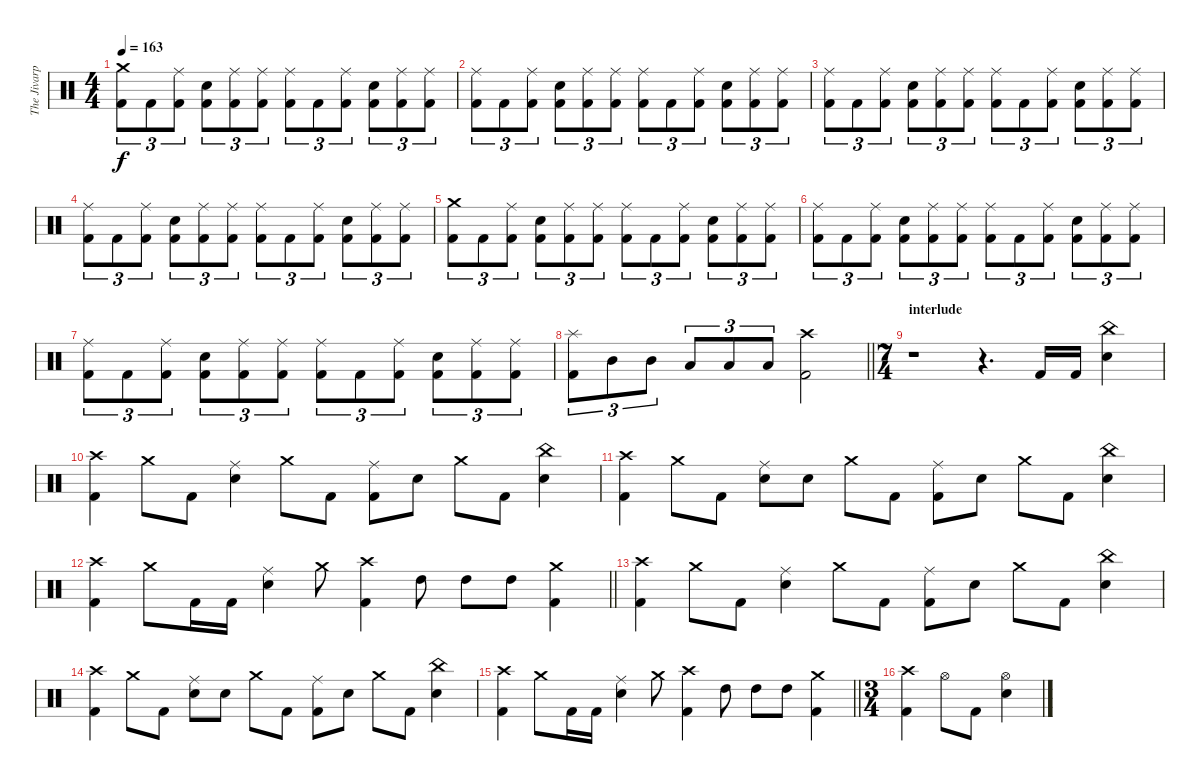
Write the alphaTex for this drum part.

\track ("The Jivarp" "The Jivarp") {instrument percussion}
\staff {score}
\articulation defaults
\ts (4 4)
\section ("" "")
\tempo 163
\clef neutral
\ks c
("Crash medium (hit)" "Kick (hit) 2").8{tu (3 2) dy f} "Kick (hit) 2".8{tu (3 2)} ("Ride (middle)" "Kick (hit) 2").8{tu (3 2)} ("Electric Snare (hit)" "Kick (hit) 2").8{tu (3 2)} ("Ride (middle)" "Kick (hit) 2").8{tu (3 2)} ("Ride (middle)" "Kick (hit) 2").8{tu (3 2)} ("Ride (middle)" "Kick (hit) 2").8{tu (3 2)} "Kick (hit) 2".8{tu (3 2)} ("Ride (middle)" "Kick (hit) 2").8{tu (3 2)} ("Electric Snare (hit)" "Kick (hit) 2").8{tu (3 2)} ("Ride (middle)" "Kick (hit) 2").8{tu (3 2)} ("Ride (middle)" "Kick (hit) 2").8{tu (3 2)} |
("Ride (middle)" "Kick (hit) 2").8{tu (3 2)} "Kick (hit) 2".8{tu (3 2)} ("Ride (middle)" "Kick (hit) 2").8{tu (3 2)} ("Electric Snare (hit)" "Kick (hit) 2").8{tu (3 2)} ("Ride (middle)" "Kick (hit) 2").8{tu (3 2)} ("Ride (middle)" "Kick (hit) 2").8{tu (3 2)} ("Ride (middle)" "Kick (hit) 2").8{tu (3 2)} "Kick (hit) 2".8{tu (3 2)} ("Ride (middle)" "Kick (hit) 2").8{tu (3 2)} ("Electric Snare (hit)" "Kick (hit) 2").8{tu (3 2)} ("Ride (middle)" "Kick (hit) 2").8{tu (3 2)} ("Ride (middle)" "Kick (hit) 2").8{tu (3 2)} |
("Ride (middle)" "Kick (hit) 2").8{tu (3 2)} "Kick (hit) 2".8{tu (3 2)} ("Ride (middle)" "Kick (hit) 2").8{tu (3 2)} ("Electric Snare (hit)" "Kick (hit) 2").8{tu (3 2)} ("Ride (middle)" "Kick (hit) 2").8{tu (3 2)} ("Ride (middle)" "Kick (hit) 2").8{tu (3 2)} ("Ride (middle)" "Kick (hit) 2").8{tu (3 2)} "Kick (hit) 2".8{tu (3 2)} ("Ride (middle)" "Kick (hit) 2").8{tu (3 2)} ("Electric Snare (hit)" "Kick (hit) 2").8{tu (3 2)} ("Ride (middle)" "Kick (hit) 2").8{tu (3 2)} ("Ride (middle)" "Kick (hit) 2").8{tu (3 2)} |
("Ride (middle)" "Kick (hit) 2").8{tu (3 2)} "Kick (hit) 2".8{tu (3 2)} ("Ride (middle)" "Kick (hit) 2").8{tu (3 2)} ("Electric Snare (hit)" "Kick (hit) 2").8{tu (3 2)} ("Ride (middle)" "Kick (hit) 2").8{tu (3 2)} ("Ride (middle)" "Kick (hit) 2").8{tu (3 2)} ("Ride (middle)" "Kick (hit) 2").8{tu (3 2)} "Kick (hit) 2".8{tu (3 2)} ("Ride (middle)" "Kick (hit) 2").8{tu (3 2)} ("Electric Snare (hit)" "Kick (hit) 2").8{tu (3 2)} ("Ride (middle)" "Kick (hit) 2").8{tu (3 2)} ("Ride (middle)" "Kick (hit) 2").8{tu (3 2)} |
("Crash medium (hit)" "Kick (hit) 2").8{tu (3 2)} "Kick (hit) 2".8{tu (3 2)} ("Ride (middle)" "Kick (hit) 2").8{tu (3 2)} ("Electric Snare (hit)" "Kick (hit) 2").8{tu (3 2)} ("Ride (middle)" "Kick (hit) 2").8{tu (3 2)} ("Ride (middle)" "Kick (hit) 2").8{tu (3 2)} ("Ride (middle)" "Kick (hit) 2").8{tu (3 2)} "Kick (hit) 2".8{tu (3 2)} ("Ride (middle)" "Kick (hit) 2").8{tu (3 2)} ("Electric Snare (hit)" "Kick (hit) 2").8{tu (3 2)} ("Ride (middle)" "Kick (hit) 2").8{tu (3 2)} ("Ride (middle)" "Kick (hit) 2").8{tu (3 2)} |
("Ride (middle)" "Kick (hit) 2").8{tu (3 2)} "Kick (hit) 2".8{tu (3 2)} ("Ride (middle)" "Kick (hit) 2").8{tu (3 2)} ("Electric Snare (hit)" "Kick (hit) 2").8{tu (3 2)} ("Ride (middle)" "Kick (hit) 2").8{tu (3 2)} ("Ride (middle)" "Kick (hit) 2").8{tu (3 2)} ("Ride (middle)" "Kick (hit) 2").8{tu (3 2)} "Kick (hit) 2".8{tu (3 2)} ("Ride (middle)" "Kick (hit) 2").8{tu (3 2)} ("Electric Snare (hit)" "Kick (hit) 2").8{tu (3 2)} ("Ride (middle)" "Kick (hit) 2").8{tu (3 2)} ("Ride (middle)" "Kick (hit) 2").8{tu (3 2)} |
("Ride (middle)" "Kick (hit) 2").8{tu (3 2)} "Kick (hit) 2".8{tu (3 2)} ("Ride (middle)" "Kick (hit) 2").8{tu (3 2)} ("Electric Snare (hit)" "Kick (hit) 2").8{tu (3 2)} ("Ride (middle)" "Kick (hit) 2").8{tu (3 2)} ("Ride (middle)" "Kick (hit) 2").8{tu (3 2)} ("Ride (middle)" "Kick (hit) 2").8{tu (3 2)} "Kick (hit) 2".8{tu (3 2)} ("Ride (middle)" "Kick (hit) 2").8{tu (3 2)} ("Electric Snare (hit)" "Kick (hit) 2").8{tu (3 2)} ("Ride (middle)" "Kick (hit) 2").8{tu (3 2)} ("Ride (middle)" "Kick (hit) 2").8{tu (3 2)} |
\barLineRight lightlight
("Splash (hit)" "Kick (hit) 2").8{tu (3 2)} "Mid Tom (hit)".8{tu (3 2)} "Mid Tom (hit)".8{tu (3 2)} "Low Tom (hit)".8{tu (3 2)} "Low Tom (hit)".8{tu (3 2)} "Low Tom (hit)".8{tu (3 2)} ("Crash high (hit)" "Kick (hit) 2").2 |
\ts (7 4)
\section ("" "interlude")
r.1 r.4{d} "Kick (hit) 2".16 "Kick (hit) 2".16 ("China (hit)" "Electric Snare (hit)").4 |
("Crash high (hit)" "Kick (hit) 2").4 "Crash medium (hit)".8 "Kick (hit) 2".8 ("Ride (middle)" "Electric Snare (hit)").4 "Crash medium (hit)".8 "Kick (hit) 2".8 ("Ride (middle)" "Kick (hit) 2").8 "Electric Snare (hit)".8 "Crash medium (hit)".8 "Kick (hit) 2".8 ("China (hit)" "Electric Snare (hit)").4 |
("Crash high (hit)" "Kick (hit) 2").4 "Crash medium (hit)".8 "Kick (hit) 2".8 ("Ride (middle)" "Electric Snare (hit)").8 "Electric Snare (hit)".8 "Crash medium (hit)".8 "Kick (hit) 2".8 ("Ride (middle)" "Kick (hit) 2").8 "Electric Snare (hit)".8 "Crash medium (hit)".8 "Kick (hit) 2".8 ("China (hit)" "Electric Snare (hit)").4 |
\barLineRight lightlight
("Crash high (hit)" "Kick (hit) 2").4 "Crash medium (hit)".8 "Kick (hit) 2".16 "Kick (hit) 2".16 ("Ride (middle)" "Electric Snare (hit)").4 "Crash medium (hit)".8 ("Crash high (hit)" "Kick (hit) 2").4 "High Tom (hit)".8 "High Tom (hit)".8 "High Tom (hit)".8 ("Crash medium (hit)" "Kick (hit) 2").4 |
\section ("" "")
("Crash high (hit)" "Kick (hit) 2").4 "Crash medium (hit)".8 "Kick (hit) 2".8 ("Ride (middle)" "Electric Snare (hit)").4 "Crash medium (hit)".8 "Kick (hit) 2".8 ("Ride (middle)" "Kick (hit) 2").8 "Electric Snare (hit)".8 "Crash medium (hit)".8 "Kick (hit) 2".8 ("China (hit)" "Electric Snare (hit)").4 |
("Crash high (hit)" "Kick (hit) 2").4 "Crash medium (hit)".8 "Kick (hit) 2".8 ("Ride (middle)" "Electric Snare (hit)").8 "Electric Snare (hit)".8 "Crash medium (hit)".8 "Kick (hit) 2".8 ("Ride (middle)" "Kick (hit) 2").8 "Electric Snare (hit)".8 "Crash medium (hit)".8 "Kick (hit) 2".8 ("China (hit)" "Electric Snare (hit)").4 |
\barLineRight lightlight
("Crash high (hit)" "Kick (hit) 2").4 "Crash medium (hit)".8 "Kick (hit) 2".16 "Kick (hit) 2".16 ("Ride (middle)" "Electric Snare (hit)").4 "Crash medium (hit)".8 ("Crash high (hit)" "Kick (hit) 2").4 "High Tom (hit)".8 "High Tom (hit)".8 "High Tom (hit)".8 ("Crash medium (hit)" "Kick (hit) 2").4 |
\ts (3 4)
\section ("" "")
("Crash high (hit)" "Kick (hit) 2").4 "Hi-Hat (open)".8 "Kick (hit) 2".8 ("Hi-Hat (open)" "Electric Snare (hit)").4
